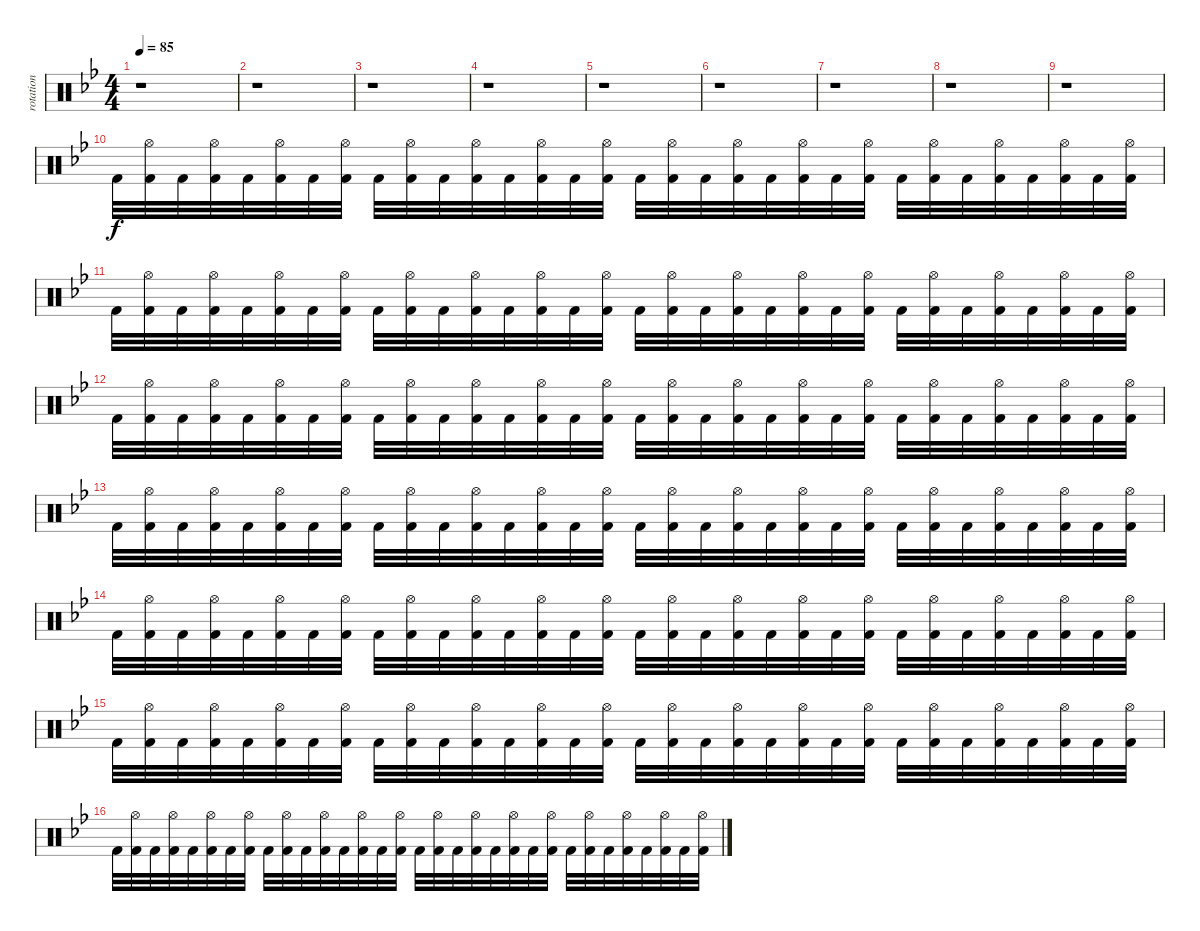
\track ("rotation" "rotation") {instrument percussion}
\staff {score}
\articulation defaults
\ts (4 4)
\tempo 85
\clef neutral
\ks gminor
r.1{dy f} |
r.1 |
r.1 |
r.1 |
r.1 |
r.1 |
r.1 |
r.1 |
r.1 |
"Kick (hit) 2".32 ("Hi-Hat (open)" "Kick (hit) 2").32 "Kick (hit) 2".32 ("Hi-Hat (open)" "Kick (hit) 2").32 "Kick (hit) 2".32 ("Hi-Hat (open)" "Kick (hit) 2").32 "Kick (hit) 2".32 ("Hi-Hat (open)" "Kick (hit) 2").32 "Kick (hit) 2".32 ("Hi-Hat (open)" "Kick (hit) 2").32 "Kick (hit) 2".32 ("Hi-Hat (open)" "Kick (hit) 2").32 "Kick (hit) 2".32 ("Hi-Hat (open)" "Kick (hit) 2").32 "Kick (hit) 2".32 ("Hi-Hat (open)" "Kick (hit) 2").32 "Kick (hit) 2".32 ("Hi-Hat (open)" "Kick (hit) 2").32 "Kick (hit) 2".32 ("Hi-Hat (open)" "Kick (hit) 2").32 "Kick (hit) 2".32 ("Hi-Hat (open)" "Kick (hit) 2").32 "Kick (hit) 2".32 ("Hi-Hat (open)" "Kick (hit) 2").32 "Kick (hit) 2".32 ("Hi-Hat (open)" "Kick (hit) 2").32 "Kick (hit) 2".32 ("Hi-Hat (open)" "Kick (hit) 2").32 "Kick (hit) 2".32 ("Hi-Hat (open)" "Kick (hit) 2").32 "Kick (hit) 2".32 ("Hi-Hat (open)" "Kick (hit) 2").32 |
"Kick (hit) 2".32 ("Hi-Hat (open)" "Kick (hit) 2").32 "Kick (hit) 2".32 ("Hi-Hat (open)" "Kick (hit) 2").32 "Kick (hit) 2".32 ("Hi-Hat (open)" "Kick (hit) 2").32 "Kick (hit) 2".32 ("Hi-Hat (open)" "Kick (hit) 2").32 "Kick (hit) 2".32 ("Hi-Hat (open)" "Kick (hit) 2").32 "Kick (hit) 2".32 ("Hi-Hat (open)" "Kick (hit) 2").32 "Kick (hit) 2".32 ("Hi-Hat (open)" "Kick (hit) 2").32 "Kick (hit) 2".32 ("Hi-Hat (open)" "Kick (hit) 2").32 "Kick (hit) 2".32 ("Hi-Hat (open)" "Kick (hit) 2").32 "Kick (hit) 2".32 ("Hi-Hat (open)" "Kick (hit) 2").32 "Kick (hit) 2".32 ("Hi-Hat (open)" "Kick (hit) 2").32 "Kick (hit) 2".32 ("Hi-Hat (open)" "Kick (hit) 2").32 "Kick (hit) 2".32 ("Hi-Hat (open)" "Kick (hit) 2").32 "Kick (hit) 2".32 ("Hi-Hat (open)" "Kick (hit) 2").32 "Kick (hit) 2".32 ("Hi-Hat (open)" "Kick (hit) 2").32 "Kick (hit) 2".32 ("Hi-Hat (open)" "Kick (hit) 2").32 |
"Kick (hit) 2".32 ("Hi-Hat (open)" "Kick (hit) 2").32 "Kick (hit) 2".32 ("Hi-Hat (open)" "Kick (hit) 2").32 "Kick (hit) 2".32 ("Hi-Hat (open)" "Kick (hit) 2").32 "Kick (hit) 2".32 ("Hi-Hat (open)" "Kick (hit) 2").32 "Kick (hit) 2".32 ("Hi-Hat (open)" "Kick (hit) 2").32 "Kick (hit) 2".32 ("Hi-Hat (open)" "Kick (hit) 2").32 "Kick (hit) 2".32 ("Hi-Hat (open)" "Kick (hit) 2").32 "Kick (hit) 2".32 ("Hi-Hat (open)" "Kick (hit) 2").32 "Kick (hit) 2".32 ("Hi-Hat (open)" "Kick (hit) 2").32 "Kick (hit) 2".32 ("Hi-Hat (open)" "Kick (hit) 2").32 "Kick (hit) 2".32 ("Hi-Hat (open)" "Kick (hit) 2").32 "Kick (hit) 2".32 ("Hi-Hat (open)" "Kick (hit) 2").32 "Kick (hit) 2".32 ("Hi-Hat (open)" "Kick (hit) 2").32 "Kick (hit) 2".32 ("Hi-Hat (open)" "Kick (hit) 2").32 "Kick (hit) 2".32 ("Hi-Hat (open)" "Kick (hit) 2").32 "Kick (hit) 2".32 ("Hi-Hat (open)" "Kick (hit) 2").32 |
"Kick (hit) 2".32 ("Hi-Hat (open)" "Kick (hit) 2").32 "Kick (hit) 2".32 ("Hi-Hat (open)" "Kick (hit) 2").32 "Kick (hit) 2".32 ("Hi-Hat (open)" "Kick (hit) 2").32 "Kick (hit) 2".32 ("Hi-Hat (open)" "Kick (hit) 2").32 "Kick (hit) 2".32 ("Hi-Hat (open)" "Kick (hit) 2").32 "Kick (hit) 2".32 ("Hi-Hat (open)" "Kick (hit) 2").32 "Kick (hit) 2".32 ("Hi-Hat (open)" "Kick (hit) 2").32 "Kick (hit) 2".32 ("Hi-Hat (open)" "Kick (hit) 2").32 "Kick (hit) 2".32 ("Hi-Hat (open)" "Kick (hit) 2").32 "Kick (hit) 2".32 ("Hi-Hat (open)" "Kick (hit) 2").32 "Kick (hit) 2".32 ("Hi-Hat (open)" "Kick (hit) 2").32 "Kick (hit) 2".32 ("Hi-Hat (open)" "Kick (hit) 2").32 "Kick (hit) 2".32 ("Hi-Hat (open)" "Kick (hit) 2").32 "Kick (hit) 2".32 ("Hi-Hat (open)" "Kick (hit) 2").32 "Kick (hit) 2".32 ("Hi-Hat (open)" "Kick (hit) 2").32 "Kick (hit) 2".32 ("Hi-Hat (open)" "Kick (hit) 2").32 |
"Kick (hit) 2".32 ("Hi-Hat (open)" "Kick (hit) 2").32 "Kick (hit) 2".32 ("Hi-Hat (open)" "Kick (hit) 2").32 "Kick (hit) 2".32 ("Hi-Hat (open)" "Kick (hit) 2").32 "Kick (hit) 2".32 ("Hi-Hat (open)" "Kick (hit) 2").32 "Kick (hit) 2".32 ("Hi-Hat (open)" "Kick (hit) 2").32 "Kick (hit) 2".32 ("Hi-Hat (open)" "Kick (hit) 2").32 "Kick (hit) 2".32 ("Hi-Hat (open)" "Kick (hit) 2").32 "Kick (hit) 2".32 ("Hi-Hat (open)" "Kick (hit) 2").32 "Kick (hit) 2".32 ("Hi-Hat (open)" "Kick (hit) 2").32 "Kick (hit) 2".32 ("Hi-Hat (open)" "Kick (hit) 2").32 "Kick (hit) 2".32 ("Hi-Hat (open)" "Kick (hit) 2").32 "Kick (hit) 2".32 ("Hi-Hat (open)" "Kick (hit) 2").32 "Kick (hit) 2".32 ("Hi-Hat (open)" "Kick (hit) 2").32 "Kick (hit) 2".32 ("Hi-Hat (open)" "Kick (hit) 2").32 "Kick (hit) 2".32 ("Hi-Hat (open)" "Kick (hit) 2").32 "Kick (hit) 2".32 ("Hi-Hat (open)" "Kick (hit) 2").32 |
"Kick (hit) 2".32 ("Hi-Hat (open)" "Kick (hit) 2").32 "Kick (hit) 2".32 ("Hi-Hat (open)" "Kick (hit) 2").32 "Kick (hit) 2".32 ("Hi-Hat (open)" "Kick (hit) 2").32 "Kick (hit) 2".32 ("Hi-Hat (open)" "Kick (hit) 2").32 "Kick (hit) 2".32 ("Hi-Hat (open)" "Kick (hit) 2").32 "Kick (hit) 2".32 ("Hi-Hat (open)" "Kick (hit) 2").32 "Kick (hit) 2".32 ("Hi-Hat (open)" "Kick (hit) 2").32 "Kick (hit) 2".32 ("Hi-Hat (open)" "Kick (hit) 2").32 "Kick (hit) 2".32 ("Hi-Hat (open)" "Kick (hit) 2").32 "Kick (hit) 2".32 ("Hi-Hat (open)" "Kick (hit) 2").32 "Kick (hit) 2".32 ("Hi-Hat (open)" "Kick (hit) 2").32 "Kick (hit) 2".32 ("Hi-Hat (open)" "Kick (hit) 2").32 "Kick (hit) 2".32 ("Hi-Hat (open)" "Kick (hit) 2").32 "Kick (hit) 2".32 ("Hi-Hat (open)" "Kick (hit) 2").32 "Kick (hit) 2".32 ("Hi-Hat (open)" "Kick (hit) 2").32 "Kick (hit) 2".32 ("Hi-Hat (open)" "Kick (hit) 2").32 |
"Kick (hit) 2".32 ("Hi-Hat (open)" "Kick (hit) 2").32 "Kick (hit) 2".32 ("Hi-Hat (open)" "Kick (hit) 2").32 "Kick (hit) 2".32 ("Hi-Hat (open)" "Kick (hit) 2").32 "Kick (hit) 2".32 ("Hi-Hat (open)" "Kick (hit) 2").32 "Kick (hit) 2".32 ("Hi-Hat (open)" "Kick (hit) 2").32 "Kick (hit) 2".32 ("Hi-Hat (open)" "Kick (hit) 2").32 "Kick (hit) 2".32 ("Hi-Hat (open)" "Kick (hit) 2").32 "Kick (hit) 2".32 ("Hi-Hat (open)" "Kick (hit) 2").32 "Kick (hit) 2".32 ("Hi-Hat (open)" "Kick (hit) 2").32 "Kick (hit) 2".32 ("Hi-Hat (open)" "Kick (hit) 2").32 "Kick (hit) 2".32 ("Hi-Hat (open)" "Kick (hit) 2").32 "Kick (hit) 2".32 ("Hi-Hat (open)" "Kick (hit) 2").32 "Kick (hit) 2".32 ("Hi-Hat (open)" "Kick (hit) 2").32 "Kick (hit) 2".32 ("Hi-Hat (open)" "Kick (hit) 2").32 "Kick (hit) 2".32 ("Hi-Hat (open)" "Kick (hit) 2").32 "Kick (hit) 2".32 ("Hi-Hat (open)" "Kick (hit) 2").32
